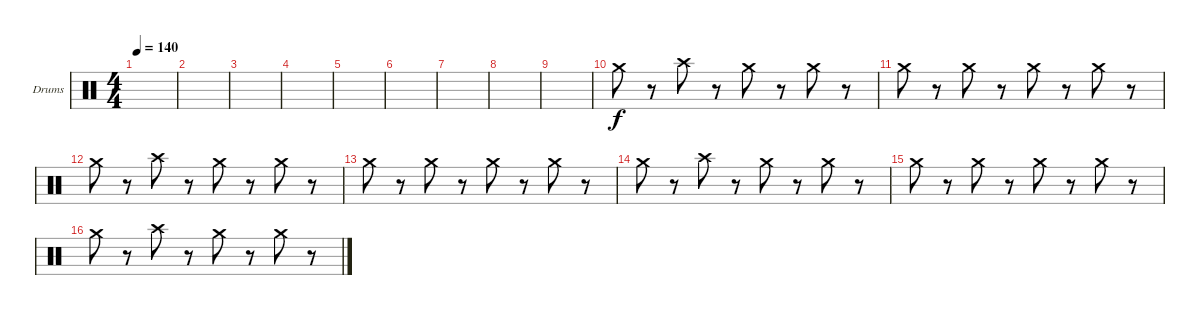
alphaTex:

\defaultSystemsLayout 4
\bracketExtendMode groupsimilarinstruments
\firstSystemTrackNameOrientation horizontal
\otherSystemsTrackNameOrientation horizontal
\track ("Drumkit" "Drums") {instrument percussion}
\staff {score}
\articulation defaults
\ts (4 4)
\tempo 140
\clef neutral
\ks c
|
|
|
|
|
|
|
|
|
"Crash medium (hit)".8 r.8 "Crash high (hit)".8 r.8 "Crash medium (hit)".8 r.8 "Crash medium (hit)".8 r.8 |
"Crash medium (hit)".8 r.8 "Crash medium (hit)".8 r.8 "Crash medium (hit)".8 r.8 "Crash medium (hit)".8 r.8 |
"Crash medium (hit)".8 r.8 "Crash high (hit)".8 r.8 "Crash medium (hit)".8 r.8 "Crash medium (hit)".8 r.8 |
"Crash medium (hit)".8 r.8 "Crash medium (hit)".8 r.8 "Crash medium (hit)".8 r.8 "Crash medium (hit)".8 r.8 |
"Crash medium (hit)".8 r.8 "Crash high (hit)".8 r.8 "Crash medium (hit)".8 r.8 "Crash medium (hit)".8 r.8 |
"Crash medium (hit)".8 r.8 "Crash medium (hit)".8 r.8 "Crash medium (hit)".8 r.8 "Crash medium (hit)".8 r.8 |
"Crash medium (hit)".8 r.8 "Crash high (hit)".8 r.8 "Crash medium (hit)".8 r.8 "Crash medium (hit)".8 r.8
